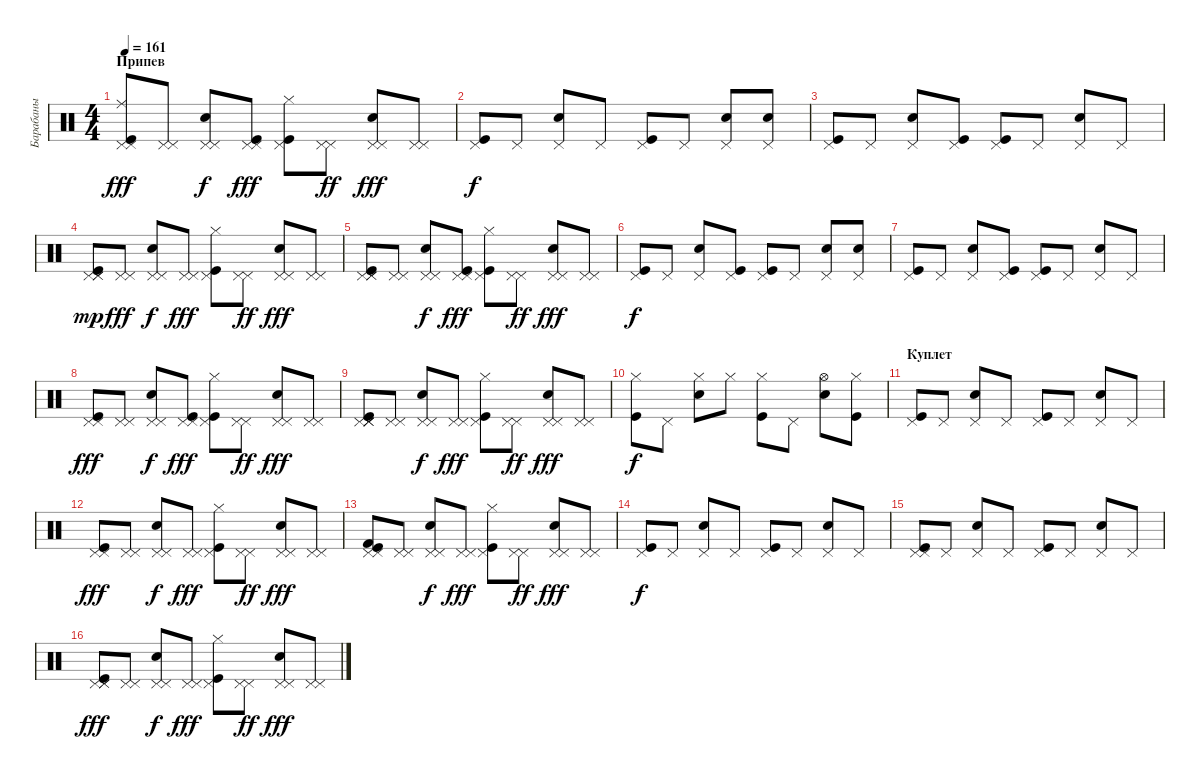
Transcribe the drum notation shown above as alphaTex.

\track ("Барабаны" "Барабаны") {instrument percussion}
\staff {score}
\articulation defaults
\ts (4 4)
\section ("" "Припев")
\tempo 161
\clef neutral
\ks c
("Ride (middle)" "Pedal Hi-Hat (hit)" "Kick (hit)" "Pedal Hi-Hat (hit)").8{dy fff} ("Pedal Hi-Hat (hit)" "Pedal Hi-Hat (hit)").8 ("Snare (hit) 2" "Pedal Hi-Hat (hit)" "Pedal Hi-Hat (hit)").8{dy f} ("Kick (hit)" "Pedal Hi-Hat (hit)" "Pedal Hi-Hat (hit)").8{dy fff} ("Kick (hit)" "Pedal Hi-Hat (hit)" "Hi-Hat (closed)").8 ("Pedal Hi-Hat (hit)" "Pedal Hi-Hat (hit)").8{dy ff} ("Snare (hit) 2" "Pedal Hi-Hat (hit)" "Pedal Hi-Hat (hit)").8{dy fff} ("Pedal Hi-Hat (hit)" "Pedal Hi-Hat (hit)").8 |
("Pedal Hi-Hat (hit)" "Kick (hit)").8{dy f} "Pedal Hi-Hat (hit)".8 ("Snare (hit) 2" "Pedal Hi-Hat (hit)").8 "Pedal Hi-Hat (hit)".8 ("Kick (hit)" "Pedal Hi-Hat (hit)").8 "Pedal Hi-Hat (hit)".8 ("Snare (hit) 2" "Pedal Hi-Hat (hit)").8 ("Snare (hit) 2" "Pedal Hi-Hat (hit)").8 |
("Kick (hit)" "Pedal Hi-Hat (hit)").8 "Pedal Hi-Hat (hit)".8 ("Snare (hit) 2" "Pedal Hi-Hat (hit)").8 ("Kick (hit)" "Pedal Hi-Hat (hit)").8 ("Kick (hit)" "Pedal Hi-Hat (hit)").8 "Pedal Hi-Hat (hit)".8 ("Snare (hit) 2" "Pedal Hi-Hat (hit)").8 "Pedal Hi-Hat (hit)".8 |
("Pedal Hi-Hat (hit)" "Kick (hit)" "Pedal Hi-Hat (hit)" "Pedal Hi-Hat (hit)").8{dy mp} ("Pedal Hi-Hat (hit)" "Pedal Hi-Hat (hit)").8{dy fff} ("Snare (hit) 2" "Pedal Hi-Hat (hit)" "Pedal Hi-Hat (hit)").8{dy f} ("Pedal Hi-Hat (hit)" "Pedal Hi-Hat (hit)").8{dy fff} ("Kick (hit)" "Hi-Hat (closed)" "Pedal Hi-Hat (hit)").8 ("Pedal Hi-Hat (hit)" "Pedal Hi-Hat (hit)").8{dy ff} ("Snare (hit) 2" "Pedal Hi-Hat (hit)" "Pedal Hi-Hat (hit)").8{dy fff} ("Pedal Hi-Hat (hit)" "Pedal Hi-Hat (hit)").8 |
("Pedal Hi-Hat (hit)" "Pedal Hi-Hat (hit)" "Pedal Hi-Hat (hit)" "Kick (hit)").8 ("Pedal Hi-Hat (hit)" "Pedal Hi-Hat (hit)").8 ("Snare (hit) 2" "Pedal Hi-Hat (hit)" "Pedal Hi-Hat (hit)").8{dy f} ("Kick (hit)" "Pedal Hi-Hat (hit)" "Pedal Hi-Hat (hit)").8{dy fff} ("Kick (hit)" "Pedal Hi-Hat (hit)" "Hi-Hat (closed)").8 ("Pedal Hi-Hat (hit)" "Pedal Hi-Hat (hit)").8{dy ff} ("Snare (hit) 2" "Pedal Hi-Hat (hit)" "Pedal Hi-Hat (hit)").8{dy fff} ("Pedal Hi-Hat (hit)" "Pedal Hi-Hat (hit)").8 |
("Kick (hit)" "Pedal Hi-Hat (hit)").8{dy f} "Pedal Hi-Hat (hit)".8 ("Snare (hit) 2" "Pedal Hi-Hat (hit)").8 ("Kick (hit)" "Pedal Hi-Hat (hit)").8 ("Kick (hit)" "Pedal Hi-Hat (hit)").8 "Pedal Hi-Hat (hit)".8 ("Snare (hit) 2" "Pedal Hi-Hat (hit)").8 ("Snare (hit) 2" "Pedal Hi-Hat (hit)").8 |
("Kick (hit)" "Pedal Hi-Hat (hit)").8 "Pedal Hi-Hat (hit)".8 ("Snare (hit) 2" "Pedal Hi-Hat (hit)").8 ("Kick (hit)" "Pedal Hi-Hat (hit)").8 ("Kick (hit)" "Pedal Hi-Hat (hit)").8 "Pedal Hi-Hat (hit)".8 ("Snare (hit) 2" "Pedal Hi-Hat (hit)").8 "Pedal Hi-Hat (hit)".8 |
("Pedal Hi-Hat (hit)" "Kick (hit)" "Pedal Hi-Hat (hit)").8{dy fff} ("Pedal Hi-Hat (hit)" "Pedal Hi-Hat (hit)").8 ("Snare (hit) 2" "Pedal Hi-Hat (hit)" "Pedal Hi-Hat (hit)").8{dy f} ("Kick (hit)" "Pedal Hi-Hat (hit)" "Pedal Hi-Hat (hit)").8{dy fff} ("Kick (hit)" "Hi-Hat (closed)" "Pedal Hi-Hat (hit)").8 ("Pedal Hi-Hat (hit)" "Pedal Hi-Hat (hit)").8{dy ff} ("Snare (hit) 2" "Pedal Hi-Hat (hit)" "Pedal Hi-Hat (hit)").8{dy fff} ("Pedal Hi-Hat (hit)" "Pedal Hi-Hat (hit)").8 |
("Pedal Hi-Hat (hit)" "Pedal Hi-Hat (hit)" "Pedal Hi-Hat (hit)" "Kick (hit)" "Pedal Hi-Hat (hit)").8 ("Pedal Hi-Hat (hit)" "Pedal Hi-Hat (hit)").8 ("Snare (hit) 2" "Pedal Hi-Hat (hit)" "Pedal Hi-Hat (hit)").8{dy f} ("Pedal Hi-Hat (hit)" "Pedal Hi-Hat (hit)").8{dy fff} ("Kick (hit)" "Pedal Hi-Hat (hit)" "Hi-Hat (closed)").8 ("Pedal Hi-Hat (hit)" "Pedal Hi-Hat (hit)").8{dy ff} ("Snare (hit) 2" "Pedal Hi-Hat (hit)" "Pedal Hi-Hat (hit)").8{dy fff} ("Pedal Hi-Hat (hit)" "Pedal Hi-Hat (hit)").8 |
("Kick (hit)" "Hi-Hat (closed)").8{dy f} "Pedal Hi-Hat (hit)".8 ("Snare (hit) 2" "Hi-Hat (closed)").8 "Hi-Hat (closed)".8 ("Kick (hit)" "Hi-Hat (closed)").8 "Pedal Hi-Hat (hit)".8 ("Snare (hit) 2" "Hi-Hat (open)").8 ("Kick (hit)" "Hi-Hat (closed)").8 |
\section ("" "Куплет")
("Kick (hit)" "Pedal Hi-Hat (hit)").8 "Pedal Hi-Hat (hit)".8 ("Snare (hit) 2" "Pedal Hi-Hat (hit)").8 "Pedal Hi-Hat (hit)".8 ("Kick (hit)" "Pedal Hi-Hat (hit)").8 "Pedal Hi-Hat (hit)".8 ("Snare (hit) 2" "Pedal Hi-Hat (hit)").8 "Pedal Hi-Hat (hit)".8 |
("Pedal Hi-Hat (hit)" "Kick (hit)" "Pedal Hi-Hat (hit)").8{dy fff} ("Pedal Hi-Hat (hit)" "Pedal Hi-Hat (hit)").8 ("Snare (hit) 2" "Pedal Hi-Hat (hit)" "Pedal Hi-Hat (hit)").8{dy f} ("Pedal Hi-Hat (hit)" "Pedal Hi-Hat (hit)").8{dy fff} ("Kick (hit)" "Hi-Hat (closed)" "Pedal Hi-Hat (hit)").8 ("Pedal Hi-Hat (hit)" "Pedal Hi-Hat (hit)").8{dy ff} ("Snare (hit) 2" "Pedal Hi-Hat (hit)" "Pedal Hi-Hat (hit)").8{dy fff} ("Pedal Hi-Hat (hit)" "Pedal Hi-Hat (hit)").8 |
("Kick (hit) 2" "Pedal Hi-Hat (hit)" "Pedal Hi-Hat (hit)" "Kick (hit)").8 ("Pedal Hi-Hat (hit)" "Pedal Hi-Hat (hit)").8 ("Snare (hit) 2" "Pedal Hi-Hat (hit)" "Pedal Hi-Hat (hit)").8{dy f} ("Pedal Hi-Hat (hit)" "Pedal Hi-Hat (hit)").8{dy fff} ("Kick (hit)" "Pedal Hi-Hat (hit)" "Hi-Hat (closed)").8 ("Pedal Hi-Hat (hit)" "Pedal Hi-Hat (hit)").8{dy ff} ("Snare (hit) 2" "Pedal Hi-Hat (hit)" "Pedal Hi-Hat (hit)").8{dy fff} ("Pedal Hi-Hat (hit)" "Pedal Hi-Hat (hit)").8 |
("Pedal Hi-Hat (hit)" "Kick (hit)").8{dy f} "Pedal Hi-Hat (hit)".8 ("Snare (hit) 2" "Pedal Hi-Hat (hit)").8 "Pedal Hi-Hat (hit)".8 ("Kick (hit)" "Pedal Hi-Hat (hit)").8 "Pedal Hi-Hat (hit)".8 ("Snare (hit) 2" "Pedal Hi-Hat (hit)").8 "Pedal Hi-Hat (hit)".8 |
("Kick (hit)" "Pedal Hi-Hat (hit)" "Pedal Hi-Hat (hit)").8 "Pedal Hi-Hat (hit)".8 ("Snare (hit) 2" "Pedal Hi-Hat (hit)").8 "Pedal Hi-Hat (hit)".8 ("Kick (hit)" "Pedal Hi-Hat (hit)").8 "Pedal Hi-Hat (hit)".8 ("Snare (hit) 2" "Pedal Hi-Hat (hit)").8 "Pedal Hi-Hat (hit)".8 |
("Pedal Hi-Hat (hit)" "Kick (hit)" "Pedal Hi-Hat (hit)" "Pedal Hi-Hat (hit)").8{dy fff} ("Pedal Hi-Hat (hit)" "Pedal Hi-Hat (hit)").8 ("Snare (hit) 2" "Pedal Hi-Hat (hit)" "Pedal Hi-Hat (hit)").8{dy f} ("Pedal Hi-Hat (hit)" "Pedal Hi-Hat (hit)").8{dy fff} ("Kick (hit)" "Hi-Hat (closed)" "Pedal Hi-Hat (hit)").8 ("Pedal Hi-Hat (hit)" "Pedal Hi-Hat (hit)").8{dy ff} ("Snare (hit) 2" "Pedal Hi-Hat (hit)" "Pedal Hi-Hat (hit)").8{dy fff} ("Pedal Hi-Hat (hit)" "Pedal Hi-Hat (hit)").8
